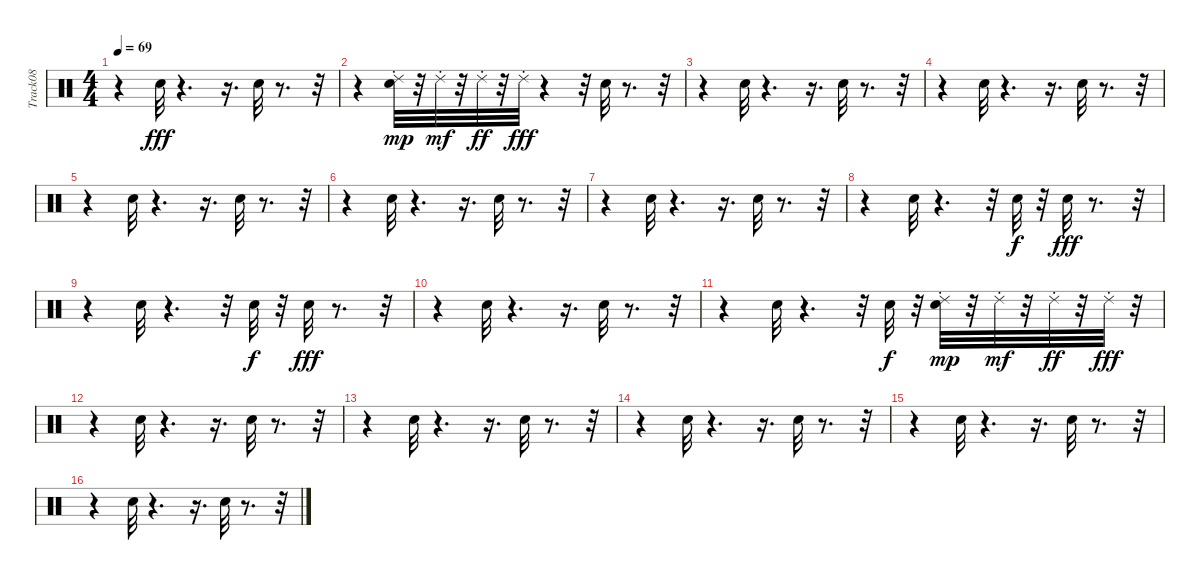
\track ("Track08" "Track08") {instrument percussion}
\staff {score}
\articulation defaults
\ts (4 4)
\tempo 69
\clef neutral
\ks c
r.4{dy fff} "Snare (hit) 2".32 r.4{d} r.16{d} "Snare (hit) 2".32 r.8{d} r.32 |
r.4 ("Snare (hit) 2" "Ride (choke) 2").32{dy mp} r.32 "Ride (choke) 2".32{dy mf} r.32 "Ride (choke) 2".32{dy ff} r.32 "Ride (choke) 2".32{dy fff} r.4 r.32 "Snare (hit) 2".32 r.8{d} r.32 |
r.4 "Snare (hit) 2".32 r.4{d} r.16{d} "Snare (hit) 2".32 r.8{d} r.32 |
r.4 "Snare (hit) 2".32 r.4{d} r.16{d} "Snare (hit) 2".32 r.8{d} r.32 |
r.4 "Snare (hit) 2".32 r.4{d} r.16{d} "Snare (hit) 2".32 r.8{d} r.32 |
r.4 "Snare (hit) 2".32 r.4{d} r.16{d} "Snare (hit) 2".32 r.8{d} r.32 |
r.4 "Snare (hit) 2".32 r.4{d} r.16{d} "Snare (hit) 2".32 r.8{d} r.32 |
r.4 "Snare (hit) 2".32 r.4{d} r.32 "Snare (hit) 2".32{dy f} r.32 "Snare (hit) 2".32{dy fff} r.8{d} r.32 |
r.4 "Snare (hit) 2".32 r.4{d} r.32 "Snare (hit) 2".32{dy f} r.32 "Snare (hit) 2".32{dy fff} r.8{d} r.32 |
r.4 "Snare (hit) 2".32 r.4{d} r.16{d} "Snare (hit) 2".32 r.8{d} r.32 |
r.4 "Snare (hit) 2".32 r.4{d} r.32 "Snare (hit) 2".32{dy f} r.32 ("Snare (hit) 2" "Ride (choke) 2").32{dy mp} r.32 "Ride (choke) 2".32{dy mf} r.32 "Ride (choke) 2".32{dy ff} r.32 "Ride (choke) 2".32{dy fff} r.32 |
r.4 "Snare (hit) 2".32 r.4{d} r.16{d} "Snare (hit) 2".32 r.8{d} r.32 |
r.4 "Snare (hit) 2".32 r.4{d} r.16{d} "Snare (hit) 2".32 r.8{d} r.32 |
r.4 "Snare (hit) 2".32 r.4{d} r.16{d} "Snare (hit) 2".32 r.8{d} r.32 |
r.4 "Snare (hit) 2".32 r.4{d} r.16{d} "Snare (hit) 2".32 r.8{d} r.32 |
r.4 "Snare (hit) 2".32 r.4{d} r.16{d} "Snare (hit) 2".32 r.8{d} r.32
